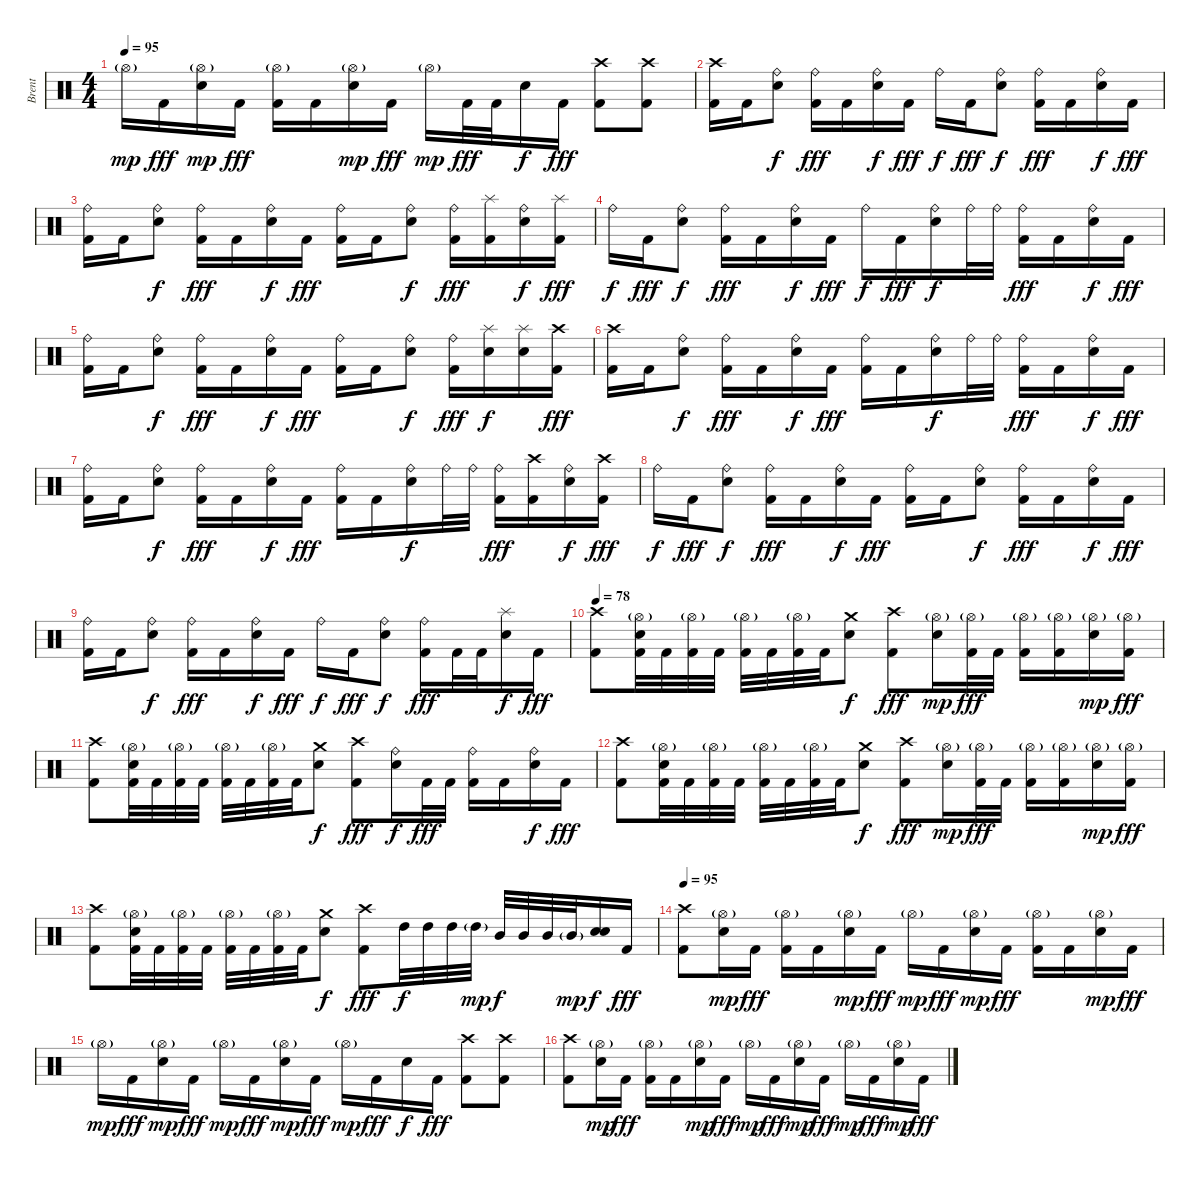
\track ("Brent" "Brent") {instrument percussion}
\staff {score}
\articulation defaults
\ts (4 4)
\tempo 95
\clef neutral
\ks c "Hi-Hat (open)"{g}.16{dy mp} "Kick (hit) 2".16{dy fff}
("Hi-Hat (open)"{g} "Snare (hit) 2").16{dy mp} "Kick (hit) 2".16{dy fff} ("Hi-Hat (open)"{g} "Kick (hit) 2").16 "Kick (hit) 2".16 ("Hi-Hat (open)"{g} "Snare (hit) 2").16{dy mp} "Kick (hit) 2".16{dy fff} "Hi-Hat (open)"{g}.16{dy mp} "Kick (hit) 2".32{dy fff} "Kick (hit) 2".32 "Snare (hit) 2".16{dy f} "Kick (hit) 2".16{dy fff} ("Crash high (hit)" "Kick (hit) 2").8 ("Crash high (hit)" "Kick (hit) 2").8 |
("Crash high (hit)" "Kick (hit) 2").16 "Kick (hit) 2".16 ("Ride (bell)" "Snare (hit) 2").8{dy f} ("Ride (bell)" "Kick (hit) 2").16{dy fff} "Kick (hit) 2".16 ("Ride (bell)" "Snare (hit) 2").16{dy f} "Kick (hit) 2".16{dy fff} "Ride (bell)".16{dy f} "Kick (hit) 2".16{dy fff} ("Ride (bell)" "Snare (hit) 2").8{dy f} ("Ride (bell)" "Kick (hit) 2").16{dy fff} "Kick (hit) 2".16 ("Ride (bell)" "Snare (hit) 2").16{dy f} "Kick (hit) 2".16{dy fff} |
("Ride (bell)" "Kick (hit) 2").16 "Kick (hit) 2".16 ("Ride (bell)" "Snare (hit) 2").8{dy f} ("Ride (bell)" "Kick (hit) 2").16{dy fff} "Kick (hit) 2".16 ("Ride (bell)" "Snare (hit) 2").16{dy f} "Kick (hit) 2".16{dy fff} ("Ride (bell)" "Kick (hit) 2").16 "Kick (hit) 2".16 ("Ride (bell)" "Snare (hit) 2").8{dy f} ("Ride (bell)" "Kick (hit) 2").16{dy fff} ("Splash (hit)" "Kick (hit) 2").16 ("Ride (bell)" "Snare (hit) 2").16{dy f} ("Splash (hit)" "Kick (hit) 2").16{dy fff} |
"Ride (bell)".16{dy f} "Kick (hit) 2".16{dy fff} ("Ride (bell)" "Snare (hit) 2").8{dy f} ("Ride (bell)" "Kick (hit) 2").16{dy fff} "Kick (hit) 2".16 ("Ride (bell)" "Snare (hit) 2").16{dy f} "Kick (hit) 2".16{dy fff} "Ride (bell)".16{dy f} "Kick (hit) 2".16{dy fff} ("Ride (bell)" "Snare (hit) 2").16{dy f} "Ride (bell)".32 "Ride (bell)".32 ("Ride (bell)" "Kick (hit) 2").16{dy fff} "Kick (hit) 2".16 ("Ride (bell)" "Snare (hit) 2").16{dy f} "Kick (hit) 2".16{dy fff} |
("Ride (bell)" "Kick (hit) 2").16 "Kick (hit) 2".16 ("Ride (bell)" "Snare (hit) 2").8{dy f} ("Ride (bell)" "Kick (hit) 2").16{dy fff} "Kick (hit) 2".16 ("Ride (bell)" "Snare (hit) 2").16{dy f} "Kick (hit) 2".16{dy fff} ("Ride (bell)" "Kick (hit) 2").16 "Kick (hit) 2".16 ("Ride (bell)" "Snare (hit) 2").8{dy f} ("Ride (bell)" "Kick (hit) 2").16{dy fff} ("Splash (hit)" "Snare (hit) 2").16{dy f} ("Splash (hit)" "Snare (hit) 2").16 ("Crash high (hit)" "Kick (hit) 2").16{dy fff} |
("Crash high (hit)" "Kick (hit) 2").16 "Kick (hit) 2".16 ("Ride (bell)" "Snare (hit) 2").8{dy f} ("Ride (bell)" "Kick (hit) 2").16{dy fff} "Kick (hit) 2".16 ("Ride (bell)" "Snare (hit) 2").16{dy f} "Kick (hit) 2".16{dy fff} ("Ride (bell)" "Kick (hit) 2").16 "Kick (hit) 2".16 ("Ride (bell)" "Snare (hit) 2").16{dy f} "Ride (bell)".32 "Ride (bell)".32 ("Ride (bell)" "Kick (hit) 2").16{dy fff} "Kick (hit) 2".16 ("Ride (bell)" "Snare (hit) 2").16{dy f} "Kick (hit) 2".16{dy fff} |
("Ride (bell)" "Kick (hit) 2").16 "Kick (hit) 2".16 ("Ride (bell)" "Snare (hit) 2").8{dy f} ("Ride (bell)" "Kick (hit) 2").16{dy fff} "Kick (hit) 2".16 ("Ride (bell)" "Snare (hit) 2").16{dy f} "Kick (hit) 2".16{dy fff} ("Ride (bell)" "Kick (hit) 2").16 "Kick (hit) 2".16 ("Ride (bell)" "Snare (hit) 2").16{dy f} "Ride (bell)".32 "Ride (bell)".32 ("Ride (bell)" "Kick (hit) 2").16{dy fff} ("Crash high (hit)" "Kick (hit) 2").16 ("Ride (bell)" "Snare (hit) 2").16{dy f} ("Crash high (hit)" "Kick (hit) 2").16{dy fff} |
"Ride (bell)".16{dy f} "Kick (hit) 2".16{dy fff} ("Ride (bell)" "Snare (hit) 2").8{dy f} ("Ride (bell)" "Kick (hit) 2").16{dy fff} "Kick (hit) 2".16 ("Ride (bell)" "Snare (hit) 2").16{dy f} "Kick (hit) 2".16{dy fff} ("Ride (bell)" "Kick (hit) 2").16 "Kick (hit) 2".16 ("Ride (bell)" "Snare (hit) 2").8{dy f} ("Ride (bell)" "Kick (hit) 2").16{dy fff} "Kick (hit) 2".16 ("Ride (bell)" "Snare (hit) 2").16{dy f} "Kick (hit) 2".16{dy fff} |
("Ride (bell)" "Kick (hit) 2").16 "Kick (hit) 2".16 ("Ride (bell)" "Snare (hit) 2").8{dy f} ("Ride (bell)" "Kick (hit) 2").16{dy fff} "Kick (hit) 2".16 ("Ride (bell)" "Snare (hit) 2").16{dy f} "Kick (hit) 2".16{dy fff} "Ride (bell)".16{dy f} "Kick (hit) 2".16{dy fff} ("Ride (bell)" "Snare (hit) 2").8{dy f} ("Ride (bell)" "Kick (hit) 2").16{dy fff} "Kick (hit) 2".32 "Kick (hit) 2".32 ("Splash (hit)" "Snare (hit) 2").16{dy f} "Kick (hit) 2".16{dy fff} |
\tempo 78
("Crash high (hit)" "Kick (hit) 2").8 ("Hi-Hat (open)"{g} "Snare (hit) 2" "Kick (hit) 2").32 "Kick (hit) 2".32 ("Hi-Hat (open)"{g} "Kick (hit) 2").32 "Kick (hit) 2".32 ("Hi-Hat (open)"{g} "Kick (hit) 2").32 "Kick (hit) 2".32 ("Hi-Hat (open)"{g} "Kick (hit) 2").32 "Kick (hit) 2".32 ("Crash medium (hit)" "Snare (hit) 2").8{dy f} ("Crash high (hit)" "Kick (hit) 2").8{dy fff} ("Hi-Hat (open)"{g} "Snare (hit) 2").16{dy mp} ("Hi-Hat (open)"{g} "Kick (hit) 2").32{dy fff} "Kick (hit) 2".32 ("Hi-Hat (open)"{g} "Kick (hit) 2").16 ("Hi-Hat (open)"{g} "Kick (hit) 2").16 ("Hi-Hat (open)"{g} "Snare (hit) 2").16{dy mp} ("Hi-Hat (open)"{g} "Kick (hit) 2").16{dy fff} |
("Crash high (hit)" "Kick (hit) 2").8 ("Hi-Hat (open)"{g} "Snare (hit) 2" "Kick (hit) 2").32 "Kick (hit) 2".32 ("Hi-Hat (open)"{g} "Kick (hit) 2").32 "Kick (hit) 2".32 ("Hi-Hat (open)"{g} "Kick (hit) 2").32 "Kick (hit) 2".32 ("Hi-Hat (open)"{g} "Kick (hit) 2").32 "Kick (hit) 2".32 ("Crash medium (hit)" "Snare (hit) 2").8{dy f} ("Crash high (hit)" "Kick (hit) 2").8{dy fff} ("Ride (bell)" "Snare (hit) 2").16{dy f} "Kick (hit) 2".32{dy fff} "Kick (hit) 2".32 ("Ride (bell)" "Kick (hit) 2").16 "Kick (hit) 2".16 ("Ride (bell)" "Snare (hit) 2").16{dy f} "Kick (hit) 2".16{dy fff} |
("Crash high (hit)" "Kick (hit) 2").8 ("Hi-Hat (open)"{g} "Snare (hit) 2" "Kick (hit) 2").32 "Kick (hit) 2".32 ("Hi-Hat (open)"{g} "Kick (hit) 2").32 "Kick (hit) 2".32 ("Hi-Hat (open)"{g} "Kick (hit) 2").32 "Kick (hit) 2".32 ("Hi-Hat (open)"{g} "Kick (hit) 2").32 "Kick (hit) 2".32 ("Crash medium (hit)" "Snare (hit) 2").8{dy f} ("Crash high (hit)" "Kick (hit) 2").8{dy fff} ("Hi-Hat (open)"{g} "Snare (hit) 2").16{dy mp} ("Hi-Hat (open)"{g} "Kick (hit) 2").32{dy fff} "Kick (hit) 2".32 ("Hi-Hat (open)"{g} "Kick (hit) 2").16 ("Hi-Hat (open)"{g} "Kick (hit) 2").16 ("Hi-Hat (open)"{g} "Snare (hit) 2").16{dy mp} ("Hi-Hat (open)"{g} "Kick (hit) 2").16{dy fff} |
("Crash high (hit)" "Kick (hit) 2").8 ("Hi-Hat (open)"{g} "Snare (hit) 2" "Kick (hit) 2").32 "Kick (hit) 2".32 ("Hi-Hat (open)"{g} "Kick (hit) 2").32 "Kick (hit) 2".32 ("Hi-Hat (open)"{g} "Kick (hit) 2").32 "Kick (hit) 2".32 ("Hi-Hat (open)"{g} "Kick (hit) 2").32 "Kick (hit) 2".32 ("Crash medium (hit)" "Snare (hit) 2").8{dy f} ("Crash high (hit)" "Kick (hit) 2").8{dy fff} "High Tom (hit)".32{dy f} "High Tom (hit)".32 "High Tom (hit)".32 "High Tom (hit)"{g}.32{dy mp} "Mid Tom (hit)".32{dy f} "Mid Tom (hit)".32 "Mid Tom (hit)".32 "Mid Tom (hit)"{g}.32{dy mp} ("Snare (hit) 2" "Snare (hit) 2").16{dy f} "Kick (hit) 2".16{dy fff} |
\tempo 95
("Crash high (hit)" "Kick (hit) 2").8 ("Hi-Hat (open)"{g} "Snare (hit) 2").16{dy mp} "Kick (hit) 2".16{dy fff} ("Hi-Hat (open)"{g} "Kick (hit) 2").16 "Kick (hit) 2".16 ("Hi-Hat (open)"{g} "Snare (hit) 2").16{dy mp} "Kick (hit) 2".16{dy fff} "Hi-Hat (open)"{g}.16{dy mp} "Kick (hit) 2".16{dy fff} ("Hi-Hat (open)"{g} "Snare (hit) 2").16{dy mp} "Kick (hit) 2".16{dy fff} ("Hi-Hat (open)"{g} "Kick (hit) 2").16 "Kick (hit) 2".16 ("Hi-Hat (open)"{g} "Snare (hit) 2").16{dy mp} "Kick (hit) 2".16{dy fff} |
"Hi-Hat (open)"{g}.16{dy mp} "Kick (hit) 2".16{dy fff} ("Hi-Hat (open)"{g} "Snare (hit) 2").16{dy mp} "Kick (hit) 2".16{dy fff} "Hi-Hat (open)"{g}.16{dy mp} "Kick (hit) 2".16{dy fff} ("Hi-Hat (open)"{g} "Snare (hit) 2").16{dy mp} "Kick (hit) 2".16{dy fff} "Hi-Hat (open)"{g}.16{dy mp} "Kick (hit) 2".16{dy fff} "Snare (hit) 2".16{dy f} "Kick (hit) 2".16{dy fff} ("Crash high (hit)" "Kick (hit) 2").8 ("Crash high (hit)" "Kick (hit) 2").8 |
("Crash high (hit)" "Kick (hit) 2").8 ("Hi-Hat (open)"{g} "Snare (hit) 2").16{dy mp} "Kick (hit) 2".16{dy fff} ("Hi-Hat (open)"{g} "Kick (hit) 2").16 "Kick (hit) 2".16 ("Hi-Hat (open)"{g} "Snare (hit) 2").16{dy mp} "Kick (hit) 2".16{dy fff} "Hi-Hat (open)"{g}.16{dy mp} "Kick (hit) 2".16{dy fff} ("Hi-Hat (open)"{g} "Snare (hit) 2").16{dy mp} "Kick (hit) 2".16{dy fff} "Hi-Hat (open)"{g}.16{dy mp} "Kick (hit) 2".16{dy fff} ("Hi-Hat (open)"{g} "Snare (hit) 2").16{dy mp} "Kick (hit) 2".16{dy fff}
